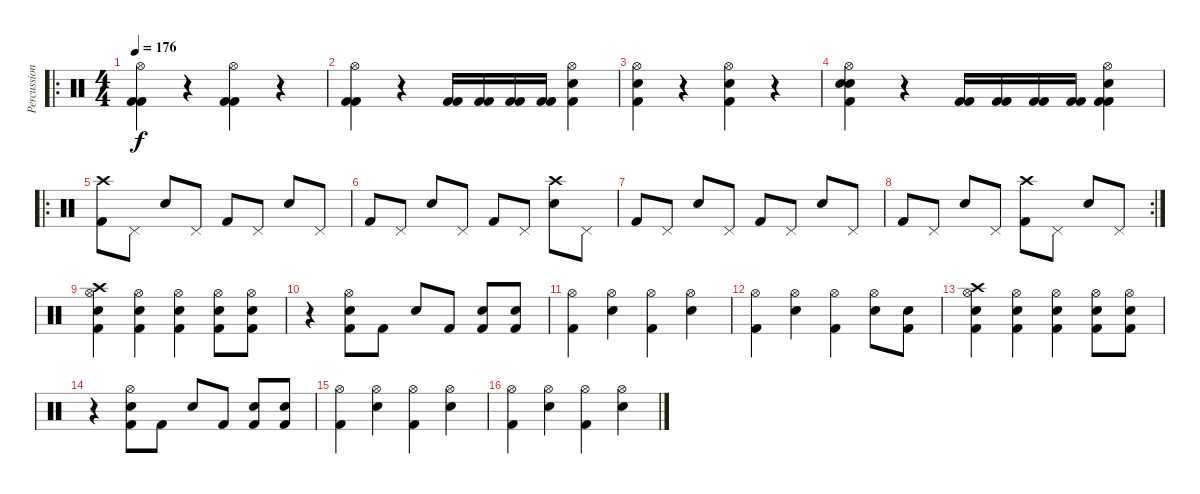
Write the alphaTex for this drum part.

\track ("Percussion" "Percussion") {instrument percussion}
\staff {score}
\articulation defaults
\ro
\ts (4 4)
\tempo 176
\clef neutral
\ks c
("Hi-Hat (open)" "Kick (hit) 2" "Kick (hit) 2").4{dy f} r.4 ("Hi-Hat (open)" "Kick (hit) 2" "Kick (hit) 2").4 r.4 |
("Hi-Hat (open)" "Kick (hit) 2" "Kick (hit) 2").4 r.4 ("Kick (hit) 2" "Kick (hit) 2").16 ("Kick (hit) 2" "Kick (hit) 2").16 ("Kick (hit) 2" "Kick (hit) 2").16 ("Kick (hit) 2" "Kick (hit) 2").16 ("Hi-Hat (open)" "Kick (hit) 2" "Snare (hit) 2").4 |
("Hi-Hat (open)" "Kick (hit) 2" "Snare (hit) 2").4 r.4 ("Hi-Hat (open)" "Kick (hit) 2" "Snare (hit) 2").4 r.4 |
("Hi-Hat (open)" "Snare (hit) 2" "Snare (hit) 2" "Kick (hit) 2").4 r.4 ("Kick (hit) 2" "Kick (hit) 2").16 ("Kick (hit) 2" "Kick (hit) 2").16 ("Kick (hit) 2" "Kick (hit) 2").16 ("Kick (hit) 2" "Kick (hit) 2").16 ("Hi-Hat (open)" "Kick (hit) 2" "Snare (hit) 2" "Kick (hit) 2").4 |
\ro
("Crash high (hit)" "Kick (hit) 2").8 "Pedal Hi-Hat (hit)".8 "Snare (hit) 2".8 "Pedal Hi-Hat (hit)".8 "Kick (hit) 2".8 "Pedal Hi-Hat (hit)".8 "Snare (hit) 2".8 "Pedal Hi-Hat (hit)".8 |
"Kick (hit) 2".8 "Pedal Hi-Hat (hit)".8 "Snare (hit) 2".8 "Pedal Hi-Hat (hit)".8 "Kick (hit) 2".8 "Pedal Hi-Hat (hit)".8 ("Crash high (hit)" "Snare (hit) 2").8 "Pedal Hi-Hat (hit)".8 |
"Kick (hit) 2".8 "Pedal Hi-Hat (hit)".8 "Snare (hit) 2".8 "Pedal Hi-Hat (hit)".8 "Kick (hit) 2".8 "Pedal Hi-Hat (hit)".8 "Snare (hit) 2".8 "Pedal Hi-Hat (hit)".8 |
\rc 2 "Kick (hit) 2".8 "Pedal Hi-Hat (hit)".8 "Snare (hit) 2".8 "Pedal Hi-Hat (hit)".8
("Crash high (hit)" "Kick (hit) 2").8 "Pedal Hi-Hat (hit)".8 "Snare (hit) 2".8 "Pedal Hi-Hat (hit)".8 |
("Crash high (hit)" "Snare (hit) 2" "Hi-Hat (open)" "Kick (hit) 2").4 ("Snare (hit) 2" "Hi-Hat (open)" "Kick (hit) 2").4 ("Snare (hit) 2" "Hi-Hat (open)" "Kick (hit) 2").4 ("Snare (hit) 2" "Hi-Hat (open)" "Kick (hit) 2").8 ("Snare (hit) 2" "Hi-Hat (open)" "Kick (hit) 2").8 |
r.4 ("Snare (hit) 2" "Hi-Hat (open)" "Kick (hit) 2").8 "Kick (hit) 2".8 "Snare (hit) 2".8 "Kick (hit) 2".8 ("Snare (hit) 2" "Kick (hit) 2").8 ("Snare (hit) 2" "Kick (hit) 2").8 |
("Hi-Hat (open)" "Kick (hit) 2").4 ("Hi-Hat (open)" "Snare (hit) 2").4 ("Hi-Hat (open)" "Kick (hit) 2").4 ("Hi-Hat (open)" "Snare (hit) 2").4 |
("Hi-Hat (open)" "Kick (hit) 2").4 ("Hi-Hat (open)" "Snare (hit) 2").4 ("Hi-Hat (open)" "Kick (hit) 2").4 ("Hi-Hat (open)" "Snare (hit) 2").8 ("Snare (hit) 2" "Kick (hit) 2").8 |
("Crash high (hit)" "Snare (hit) 2" "Hi-Hat (open)" "Kick (hit) 2").4 ("Snare (hit) 2" "Hi-Hat (open)" "Kick (hit) 2").4 ("Snare (hit) 2" "Hi-Hat (open)" "Kick (hit) 2").4 ("Snare (hit) 2" "Hi-Hat (open)" "Kick (hit) 2").8 ("Snare (hit) 2" "Hi-Hat (open)" "Kick (hit) 2").8 |
r.4 ("Snare (hit) 2" "Hi-Hat (open)" "Kick (hit) 2").8 "Kick (hit) 2".8 "Snare (hit) 2".8 "Kick (hit) 2".8 ("Snare (hit) 2" "Kick (hit) 2").8 ("Snare (hit) 2" "Kick (hit) 2").8 |
("Hi-Hat (open)" "Kick (hit) 2").4 ("Hi-Hat (open)" "Snare (hit) 2").4 ("Hi-Hat (open)" "Kick (hit) 2").4 ("Hi-Hat (open)" "Snare (hit) 2").4 |
("Hi-Hat (open)" "Kick (hit) 2").4 ("Hi-Hat (open)" "Snare (hit) 2").4 ("Hi-Hat (open)" "Kick (hit) 2").4 ("Hi-Hat (open)" "Snare (hit) 2").4
